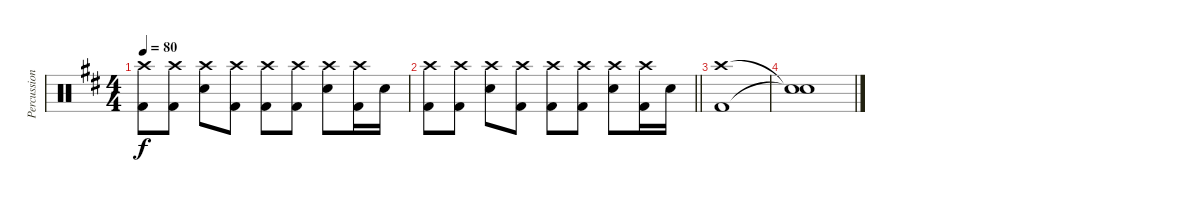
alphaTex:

\track ("Percussion" "Percussion") {instrument percussion}
\staff {score}
\articulation defaults
\ts (4 4)
\tempo 80
\clef neutral
\ks d
("Crash high (hit)" "Kick (hit) 2").8{dy f} ("Crash high (hit)" "Kick (hit) 2").8 ("Crash high (hit)" "Electric Snare (hit)").8 ("Crash high (hit)" "Kick (hit) 2").8 ("Crash high (hit)" "Kick (hit) 2").8 ("Crash high (hit)" "Kick (hit) 2").8 ("Crash high (hit)" "Electric Snare (hit)").8 ("Crash high (hit)" "Kick (hit) 2").16 "Electric Snare (hit)".16 |
\barLineRight lightlight
("Crash high (hit)" "Kick (hit) 2").8 ("Crash high (hit)" "Kick (hit) 2").8 ("Crash high (hit)" "Electric Snare (hit)").8 ("Crash high (hit)" "Kick (hit) 2").8 ("Crash high (hit)" "Kick (hit) 2").8 ("Crash high (hit)" "Kick (hit) 2").8 ("Crash high (hit)" "Electric Snare (hit)").8 ("Crash high (hit)" "Kick (hit) 2").16 "Electric Snare (hit)".16 |
("Crash high (hit)" "Kick (hit) 2").1 |
("Snare (hit)"{t} "Snare (hit)"{t}).1
